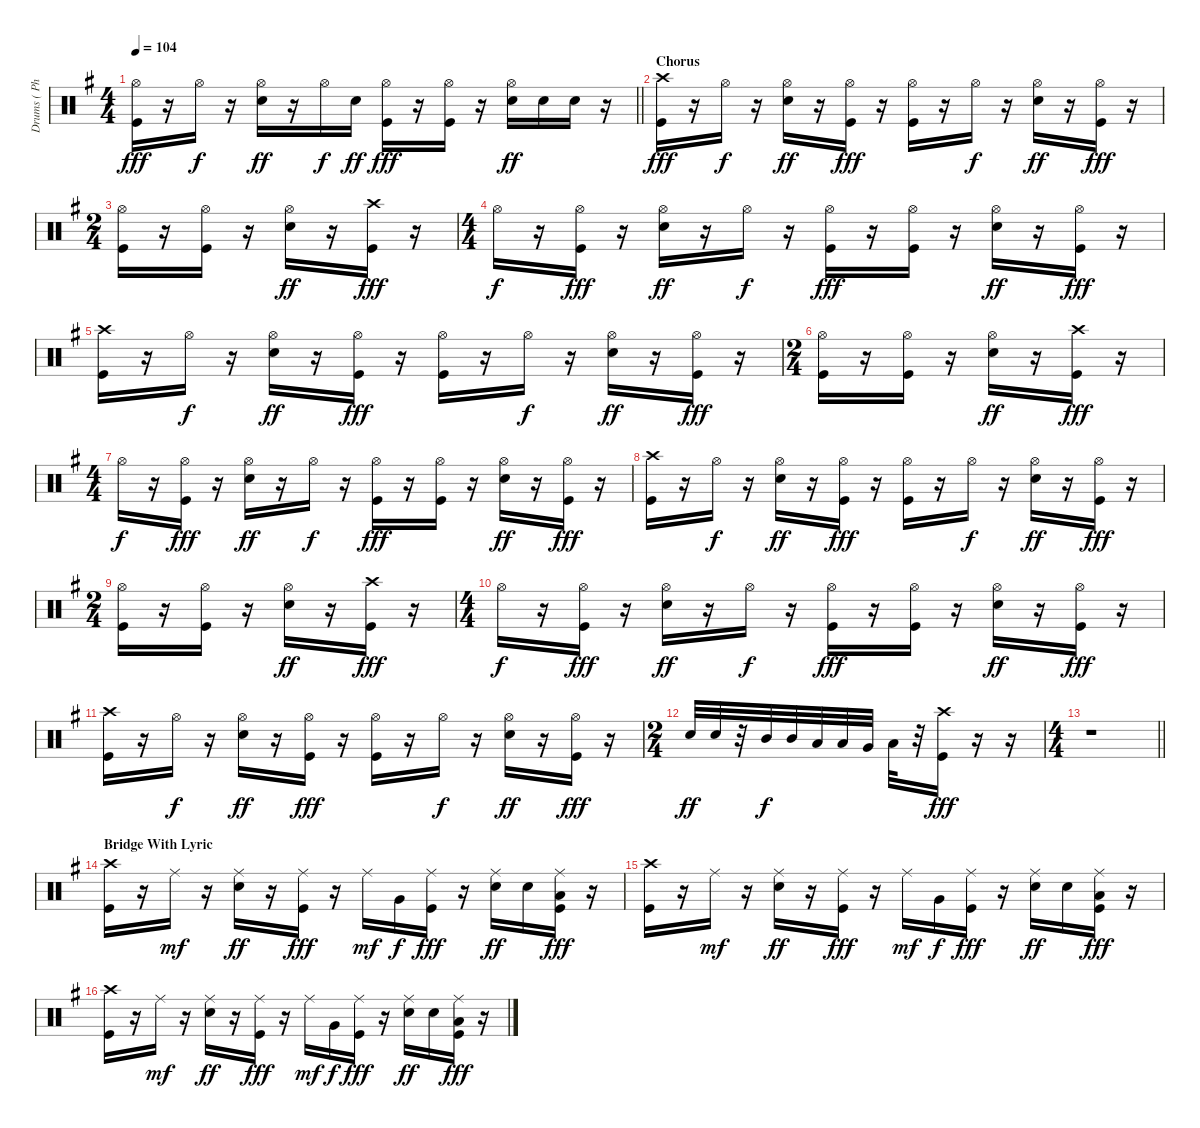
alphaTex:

\track ("Drums ( Phillip Selway)" "Drums ( Ph") {instrument percussion}
\staff {score}
\articulation defaults
\ts (4 4)
\tempo 104
\clef neutral
\barLineRight lightlight
\ks eminor
("Hi-Hat (open)" "Kick (hit)").16{dy fff} r.16 "Hi-Hat (open)".16{dy f} r.16 ("Hi-Hat (open)" "Electric Snare (hit)").16{dy ff} r.16 "Hi-Hat (open)".16{dy f} "Electric Snare (hit)".16{dy ff} ("Hi-Hat (open)" "Kick (hit)").16{dy fff} r.16 ("Hi-Hat (open)" "Kick (hit)").16 r.16 ("Hi-Hat (open)" "Electric Snare (hit)").16{dy ff} "Electric Snare (hit)".16 "Electric Snare (hit)".16 r.16 |
\section ("" "Chorus")
("Crash high (hit)" "Kick (hit)").16{dy fff} r.16 "Hi-Hat (open)".16{dy f} r.16 ("Hi-Hat (open)" "Electric Snare (hit)").16{dy ff} r.16 ("Hi-Hat (open)" "Kick (hit)").16{dy fff} r.16 ("Hi-Hat (open)" "Kick (hit)").16 r.16 "Hi-Hat (open)".16{dy f} r.16 ("Hi-Hat (open)" "Electric Snare (hit)").16{dy ff} r.16 ("Hi-Hat (open)" "Kick (hit)").16{dy fff} r.16 |
\ts (2 4)
("Hi-Hat (open)" "Kick (hit)").16 r.16 ("Hi-Hat (open)" "Kick (hit)").16 r.16 ("Hi-Hat (open)" "Electric Snare (hit)").16{dy ff} r.16 ("Crash high (hit)" "Kick (hit)").16{dy fff} r.16 |
\ts (4 4)
"Hi-Hat (open)".16{dy f} r.16 ("Hi-Hat (open)" "Kick (hit)").16{dy fff} r.16 ("Hi-Hat (open)" "Electric Snare (hit)").16{dy ff} r.16 "Hi-Hat (open)".16{dy f} r.16 ("Hi-Hat (open)" "Kick (hit)").16{dy fff} r.16 ("Hi-Hat (open)" "Kick (hit)").16 r.16 ("Hi-Hat (open)" "Electric Snare (hit)").16{dy ff} r.16 ("Hi-Hat (open)" "Kick (hit)").16{dy fff} r.16 |
("Crash high (hit)" "Kick (hit)").16 r.16 "Hi-Hat (open)".16{dy f} r.16 ("Hi-Hat (open)" "Electric Snare (hit)").16{dy ff} r.16 ("Hi-Hat (open)" "Kick (hit)").16{dy fff} r.16 ("Hi-Hat (open)" "Kick (hit)").16 r.16 "Hi-Hat (open)".16{dy f} r.16 ("Hi-Hat (open)" "Electric Snare (hit)").16{dy ff} r.16 ("Hi-Hat (open)" "Kick (hit)").16{dy fff} r.16 |
\ts (2 4)
("Hi-Hat (open)" "Kick (hit)").16 r.16 ("Hi-Hat (open)" "Kick (hit)").16 r.16 ("Hi-Hat (open)" "Electric Snare (hit)").16{dy ff} r.16 ("Crash high (hit)" "Kick (hit)").16{dy fff} r.16 |
\ts (4 4)
"Hi-Hat (open)".16{dy f} r.16 ("Hi-Hat (open)" "Kick (hit)").16{dy fff} r.16 ("Hi-Hat (open)" "Electric Snare (hit)").16{dy ff} r.16 "Hi-Hat (open)".16{dy f} r.16 ("Hi-Hat (open)" "Kick (hit)").16{dy fff} r.16 ("Hi-Hat (open)" "Kick (hit)").16 r.16 ("Hi-Hat (open)" "Electric Snare (hit)").16{dy ff} r.16 ("Hi-Hat (open)" "Kick (hit)").16{dy fff} r.16 |
("Crash high (hit)" "Kick (hit)").16 r.16 "Hi-Hat (open)".16{dy f} r.16 ("Hi-Hat (open)" "Electric Snare (hit)").16{dy ff} r.16 ("Hi-Hat (open)" "Kick (hit)").16{dy fff} r.16 ("Hi-Hat (open)" "Kick (hit)").16 r.16 "Hi-Hat (open)".16{dy f} r.16 ("Hi-Hat (open)" "Electric Snare (hit)").16{dy ff} r.16 ("Hi-Hat (open)" "Kick (hit)").16{dy fff} r.16 |
\ts (2 4)
("Hi-Hat (open)" "Kick (hit)").16 r.16 ("Hi-Hat (open)" "Kick (hit)").16 r.16 ("Hi-Hat (open)" "Electric Snare (hit)").16{dy ff} r.16 ("Crash high (hit)" "Kick (hit)").16{dy fff} r.16 |
\ts (4 4)
"Hi-Hat (open)".16{dy f} r.16 ("Hi-Hat (open)" "Kick (hit)").16{dy fff} r.16 ("Hi-Hat (open)" "Electric Snare (hit)").16{dy ff} r.16 "Hi-Hat (open)".16{dy f} r.16 ("Hi-Hat (open)" "Kick (hit)").16{dy fff} r.16 ("Hi-Hat (open)" "Kick (hit)").16 r.16 ("Hi-Hat (open)" "Electric Snare (hit)").16{dy ff} r.16 ("Hi-Hat (open)" "Kick (hit)").16{dy fff} r.16 |
("Crash high (hit)" "Kick (hit)").16 r.16 "Hi-Hat (open)".16{dy f} r.16 ("Hi-Hat (open)" "Electric Snare (hit)").16{dy ff} r.16 ("Hi-Hat (open)" "Kick (hit)").16{dy fff} r.16 ("Hi-Hat (open)" "Kick (hit)").16 r.16 "Hi-Hat (open)".16{dy f} r.16 ("Hi-Hat (open)" "Electric Snare (hit)").16{dy ff} r.16 ("Hi-Hat (open)" "Kick (hit)").16{dy fff} r.16 |
\ts (2 4)
"Electric Snare (hit)".32{dy ff} "Electric Snare (hit)".32 r.32 "Mid Tom (hit)".32{dy f} "Mid Tom (hit)".32 "Low Tom (hit)".32 "Low Tom (hit)".32 "Very Low Tom (hit)".32 "Low Floor Tom (hit)".32 r.32 ("Crash high (hit)" "Kick (hit)").16{dy fff} r.16 r.16 |
\ts (4 4)
\barLineRight lightlight
r.1 |
\section ("" "Bridge With Lyric")
("Crash high (hit)" "Kick (hit)").16 r.16 "Ride (middle)".16{dy mf} r.16 ("Ride (middle)" "Electric Snare (hit)").16{dy ff} r.16 ("Ride (middle)" "Kick (hit)").16{dy fff} r.16 "Ride (middle)".16{dy mf} "Very Low Tom (hit)".16{dy f} ("Ride (middle)" "Kick (hit)").16{dy fff} r.16 ("Ride (middle)" "Electric Snare (hit)").16{dy ff} "Electric Snare (hit)".16 ("Ride (middle)" "Low Floor Tom (hit)" "Kick (hit)").16{dy fff} r.16 |
("Crash high (hit)" "Kick (hit)").16 r.16 "Ride (middle)".16{dy mf} r.16 ("Ride (middle)" "Electric Snare (hit)").16{dy ff} r.16 ("Ride (middle)" "Kick (hit)").16{dy fff} r.16 "Ride (middle)".16{dy mf} "Very Low Tom (hit)".16{dy f} ("Ride (middle)" "Kick (hit)").16{dy fff} r.16 ("Ride (middle)" "Electric Snare (hit)").16{dy ff} "Electric Snare (hit)".16 ("Ride (middle)" "Low Floor Tom (hit)" "Kick (hit)").16{dy fff} r.16 |
("Crash high (hit)" "Kick (hit)").16 r.16 "Ride (middle)".16{dy mf} r.16 ("Ride (middle)" "Electric Snare (hit)").16{dy ff} r.16 ("Ride (middle)" "Kick (hit)").16{dy fff} r.16 "Ride (middle)".16{dy mf} "Very Low Tom (hit)".16{dy f} ("Ride (middle)" "Kick (hit)").16{dy fff} r.16 ("Ride (middle)" "Electric Snare (hit)").16{dy ff} "Electric Snare (hit)".16 ("Ride (middle)" "Low Floor Tom (hit)" "Kick (hit)").16{dy fff} r.16
